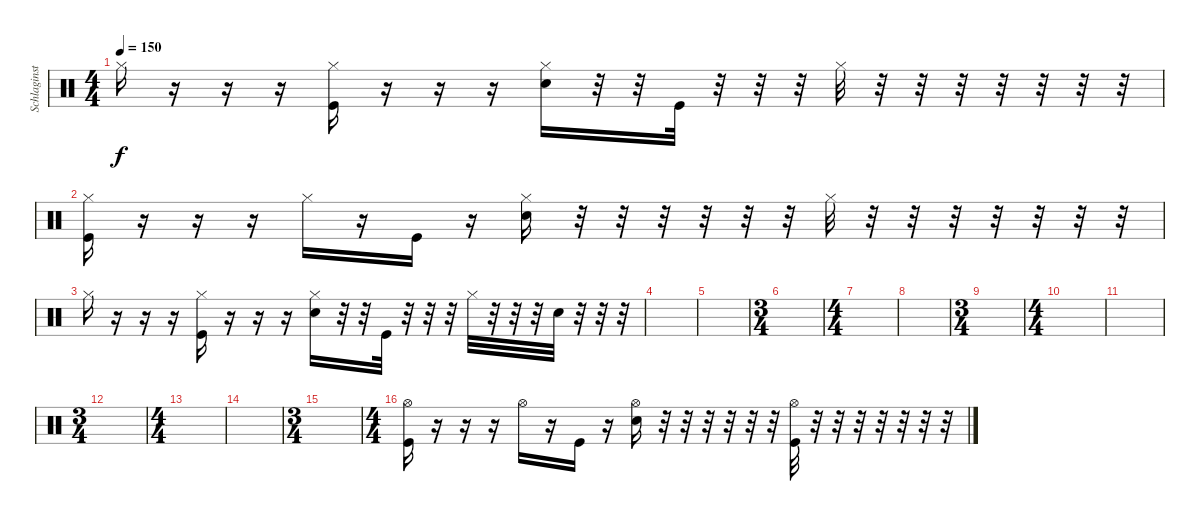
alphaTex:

\track ("Schlaginstrumente - Auswahl" "Schlaginst") {instrument percussion}
\staff {score}
\articulation defaults
\ts (4 4)
\tempo 150
\clef neutral
\ks c "Hi-Hat (closed)".16{dy f}
r.16 r.16 r.16 ("Kick (hit)" "Hi-Hat (closed)").16 r.16 r.16 r.16 ("Electric Snare (hit)" "Hi-Hat (closed)").16 r.32 r.32 "Kick (hit)".32 r.32 r.32 r.32 "Hi-Hat (closed)".32 r.32 r.32 r.32 r.32 r.32 r.32 r.32 |
("Kick (hit)" "Hi-Hat (closed)").16 r.16 r.16 r.16 "Hi-Hat (closed)".16 r.16 "Kick (hit)".16 r.16 ("Electric Snare (hit)" "Hi-Hat (closed)").16 r.32 r.32 r.32 r.32 r.32 r.32 "Hi-Hat (closed)".32 r.32 r.32 r.32 r.32 r.32 r.32 r.32 |
"Hi-Hat (closed)".16 r.16 r.16 r.16 ("Kick (hit)" "Hi-Hat (closed)").16 r.16 r.16 r.16 ("Electric Snare (hit)" "Hi-Hat (closed)").16 r.32 r.32 "Kick (hit)".32 r.32 r.32 r.32 "Hi-Hat (closed)".32 r.32 r.32 r.32 "Electric Snare (hit)".32 r.32 r.32 r.32 |
|
|
\ts (3 4)
|
\ts (4 4)
|
|
\ts (3 4)
|
\ts (4 4)
|
|
\ts (3 4)
|
\ts (4 4)
|
|
\ts (3 4)
|
\ts (4 4)
("Kick (hit)" "Hi-Hat (open)").16 r.16 r.16 r.16 "Hi-Hat (open)".16 r.16 "Kick (hit)".16 r.16 ("Electric Snare (hit)" "Hi-Hat (open)").16 r.32 r.32 r.32 r.32 r.32 r.32 ("Kick (hit)" "Hi-Hat (open)").32 r.32 r.32 r.32 r.32 r.32 r.32 r.32
